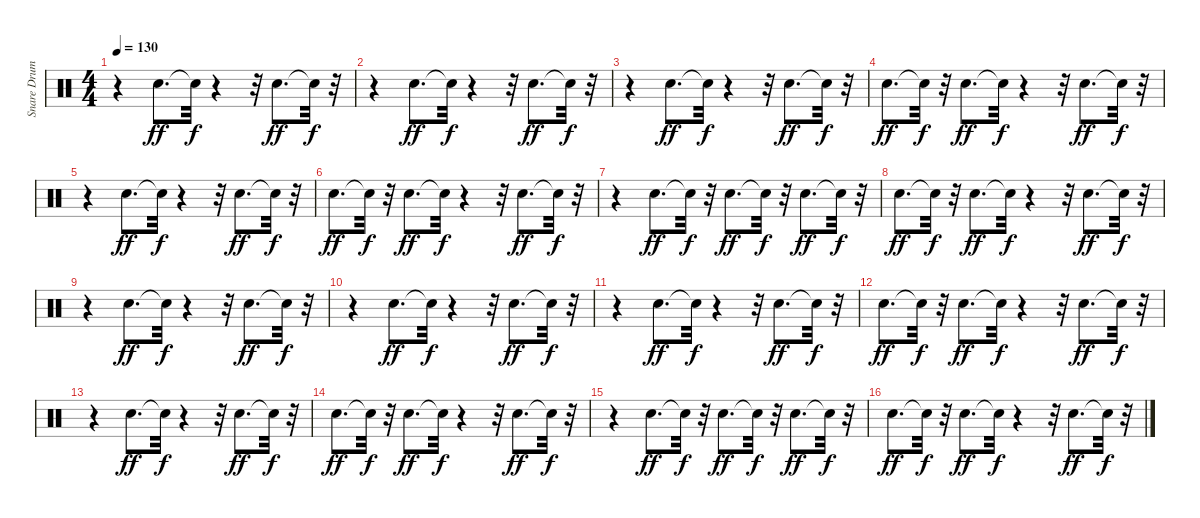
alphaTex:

\track ("Snare Drum" "Snare Drum") {instrument percussion}
\staff {score}
\articulation defaults
\ts (4 4)
\tempo 130
\clef neutral
\ks c
r.4{dy f} "Snare (hit) 2".8{d dy ff} "Snare (hit)"{t}.32{dy f} r.4 r.32 "Snare (hit) 2".8{d dy ff} "Snare (hit)"{t}.32{dy f} r.32 |
r.4 "Snare (hit) 2".8{d dy ff} "Snare (hit)"{t}.32{dy f} r.4 r.32 "Snare (hit) 2".8{d dy ff} "Snare (hit)"{t}.32{dy f} r.32 |
r.4 "Snare (hit) 2".8{d dy ff} "Snare (hit)"{t}.32{dy f} r.4 r.32 "Snare (hit) 2".8{d dy ff} "Snare (hit)"{t}.32{dy f} r.32 |
"Snare (hit) 2".8{d dy ff} "Snare (hit)"{t}.32{dy f} r.32 "Snare (hit) 2".8{d dy ff} "Snare (hit)"{t}.32{dy f} r.4 r.32 "Snare (hit) 2".8{d dy ff} "Snare (hit)"{t}.32{dy f} r.32 |
r.4 "Snare (hit) 2".8{d dy ff} "Snare (hit)"{t}.32{dy f} r.4 r.32 "Snare (hit) 2".8{d dy ff} "Snare (hit)"{t}.32{dy f} r.32 |
"Snare (hit) 2".8{d dy ff} "Snare (hit)"{t}.32{dy f} r.32 "Snare (hit) 2".8{d dy ff} "Snare (hit)"{t}.32{dy f} r.4 r.32 "Snare (hit) 2".8{d dy ff} "Snare (hit)"{t}.32{dy f} r.32 |
r.4 "Snare (hit) 2".8{d dy ff} "Snare (hit)"{t}.32{dy f} r.32 "Snare (hit) 2".8{d dy ff} "Snare (hit)"{t}.32{dy f} r.32 "Snare (hit) 2".8{d dy ff} "Snare (hit)"{t}.32{dy f} r.32 |
"Snare (hit) 2".8{d dy ff} "Snare (hit)"{t}.32{dy f} r.32 "Snare (hit) 2".8{d dy ff} "Snare (hit)"{t}.32{dy f} r.4 r.32 "Snare (hit) 2".8{d dy ff} "Snare (hit)"{t}.32{dy f} r.32 |
r.4 "Snare (hit) 2".8{d dy ff} "Snare (hit)"{t}.32{dy f} r.4 r.32 "Snare (hit) 2".8{d dy ff} "Snare (hit)"{t}.32{dy f} r.32 |
r.4 "Snare (hit) 2".8{d dy ff} "Snare (hit)"{t}.32{dy f} r.4 r.32 "Snare (hit) 2".8{d dy ff} "Snare (hit)"{t}.32{dy f} r.32 |
r.4 "Snare (hit) 2".8{d dy ff} "Snare (hit)"{t}.32{dy f} r.4 r.32 "Snare (hit) 2".8{d dy ff} "Snare (hit)"{t}.32{dy f} r.32 |
"Snare (hit) 2".8{d dy ff} "Snare (hit)"{t}.32{dy f} r.32 "Snare (hit) 2".8{d dy ff} "Snare (hit)"{t}.32{dy f} r.4 r.32 "Snare (hit) 2".8{d dy ff} "Snare (hit)"{t}.32{dy f} r.32 |
r.4 "Snare (hit) 2".8{d dy ff} "Snare (hit)"{t}.32{dy f} r.4 r.32 "Snare (hit) 2".8{d dy ff} "Snare (hit)"{t}.32{dy f} r.32 |
"Snare (hit) 2".8{d dy ff} "Snare (hit)"{t}.32{dy f} r.32 "Snare (hit) 2".8{d dy ff} "Snare (hit)"{t}.32{dy f} r.4 r.32 "Snare (hit) 2".8{d dy ff} "Snare (hit)"{t}.32{dy f} r.32 |
r.4 "Snare (hit) 2".8{d dy ff} "Snare (hit)"{t}.32{dy f} r.32 "Snare (hit) 2".8{d dy ff} "Snare (hit)"{t}.32{dy f} r.32 "Snare (hit) 2".8{d dy ff} "Snare (hit)"{t}.32{dy f} r.32 |
"Snare (hit) 2".8{d dy ff} "Snare (hit)"{t}.32{dy f} r.32 "Snare (hit) 2".8{d dy ff} "Snare (hit)"{t}.32{dy f} r.4 r.32 "Snare (hit) 2".8{d dy ff} "Snare (hit)"{t}.32{dy f} r.32
